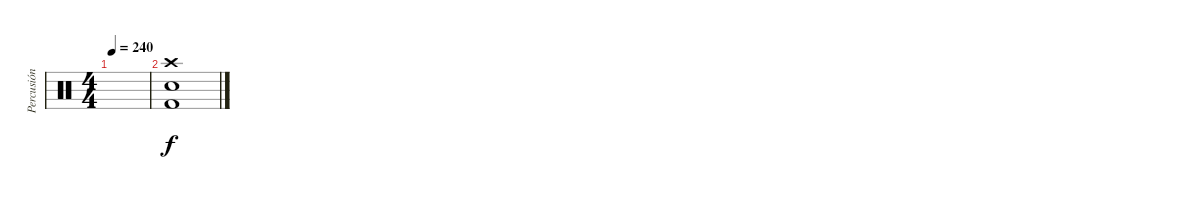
\track ("Percusión" "Percusión") {instrument percussion}
\staff {score}
\articulation defaults
\ts (4 4)
\tempo 240
\clef neutral
\ks c
|
("Crash high (hit)" "Electric Snare (hit)" "Kick (hit) 2").1
